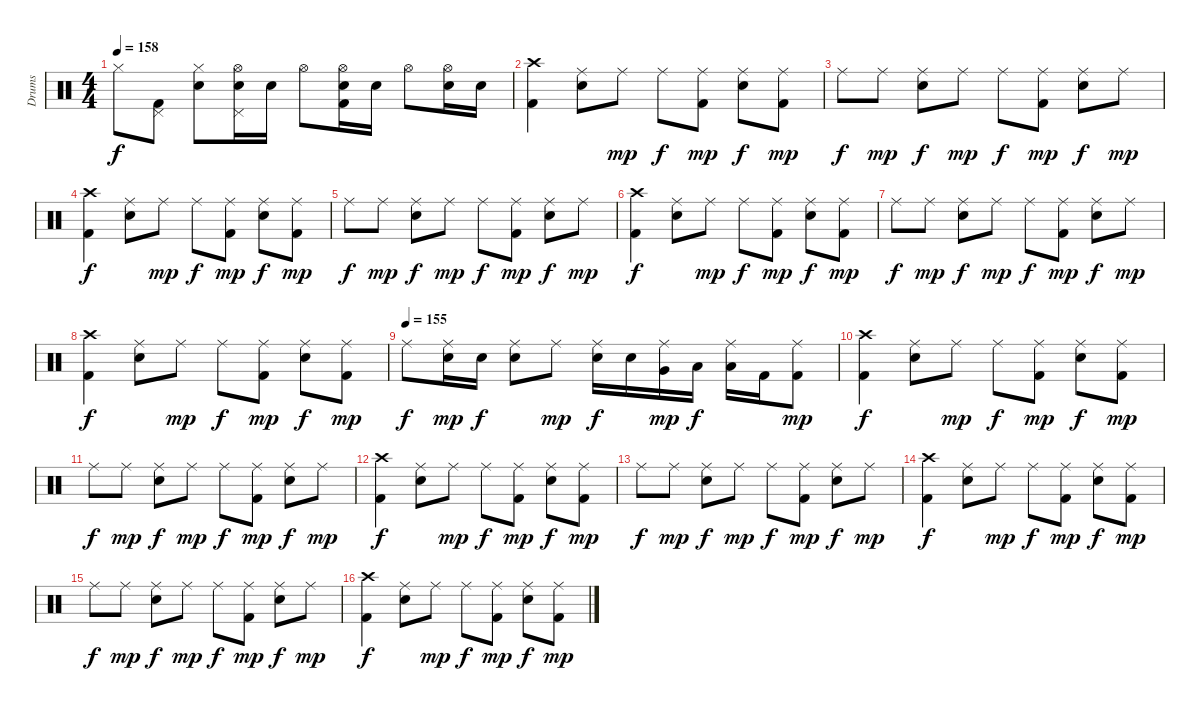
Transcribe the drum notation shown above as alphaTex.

\track ("Drums" "Drums") {instrument percussion}
\staff {score}
\articulation defaults
\ts (4 4)
\tempo 158
\clef neutral
\ks c "Hi-Hat (closed)".8{dy f}
("Kick (hit) 2" "Pedal Hi-Hat (hit)").8 ("Electric Snare (hit)" "Hi-Hat (closed)").8 ("Hi-Hat (open)" "Electric Snare (hit)" "Pedal Hi-Hat (hit)").16 "Electric Snare (hit)".16 "Hi-Hat (open)".8 ("Hi-Hat (open)" "Electric Snare (hit)" "Kick (hit) 2").16 "Electric Snare (hit)".16 "Hi-Hat (open)".8 ("Hi-Hat (open)" "Electric Snare (hit)").16 "Electric Snare (hit)".16 |
("Kick (hit) 2" "Crash high (hit)").4 ("Ride (middle)" "Electric Snare (hit)").8 "Ride (middle)".8{dy mp} "Ride (middle)".8{dy f} ("Kick (hit) 2" "Ride (middle)").8{dy mp} ("Electric Snare (hit)" "Ride (middle)").8{dy f} ("Kick (hit) 2" "Ride (middle)").8{dy mp} |
"Ride (middle)".8{dy f} "Ride (middle)".8{dy mp} ("Electric Snare (hit)" "Ride (middle)").8{dy f} "Ride (middle)".8{dy mp} "Ride (middle)".8{dy f} ("Kick (hit) 2" "Ride (middle)").8{dy mp} ("Electric Snare (hit)" "Ride (middle)").8{dy f} "Ride (middle)".8{dy mp} |
("Kick (hit) 2" "Crash high (hit)").4{dy f} ("Ride (middle)" "Electric Snare (hit)").8 "Ride (middle)".8{dy mp} "Ride (middle)".8{dy f} ("Kick (hit) 2" "Ride (middle)").8{dy mp} ("Electric Snare (hit)" "Ride (middle)").8{dy f} ("Kick (hit) 2" "Ride (middle)").8{dy mp} |
"Ride (middle)".8{dy f} "Ride (middle)".8{dy mp} ("Electric Snare (hit)" "Ride (middle)").8{dy f} "Ride (middle)".8{dy mp} "Ride (middle)".8{dy f} ("Kick (hit) 2" "Ride (middle)").8{dy mp} ("Electric Snare (hit)" "Ride (middle)").8{dy f} "Ride (middle)".8{dy mp} |
("Kick (hit) 2" "Crash high (hit)").4{dy f} ("Ride (middle)" "Electric Snare (hit)").8 "Ride (middle)".8{dy mp} "Ride (middle)".8{dy f} ("Kick (hit) 2" "Ride (middle)").8{dy mp} ("Electric Snare (hit)" "Ride (middle)").8{dy f} ("Kick (hit) 2" "Ride (middle)").8{dy mp} |
"Ride (middle)".8{dy f} "Ride (middle)".8{dy mp} ("Electric Snare (hit)" "Ride (middle)").8{dy f} "Ride (middle)".8{dy mp} "Ride (middle)".8{dy f} ("Kick (hit) 2" "Ride (middle)").8{dy mp} ("Electric Snare (hit)" "Ride (middle)").8{dy f} "Ride (middle)".8{dy mp} |
("Kick (hit) 2" "Crash high (hit)").4{dy f} ("Ride (middle)" "Electric Snare (hit)").8 "Ride (middle)".8{dy mp} "Ride (middle)".8{dy f} ("Kick (hit) 2" "Ride (middle)").8{dy mp} ("Electric Snare (hit)" "Ride (middle)").8{dy f} ("Kick (hit) 2" "Ride (middle)").8{dy mp} |
\tempo (155)
"Ride (middle)".8{dy f} ("Electric Snare (hit)" "Ride (middle)").16{dy mp} "Electric Snare (hit)".16{dy f} ("Electric Snare (hit)" "Ride (middle)").8 "Ride (middle)".8{dy mp} ("Electric Snare (hit)" "Ride (middle)").16{dy f} "Electric Snare (hit)".16 ("Very Low Tom (hit)" "Ride (middle)").16{dy mp} "Low Floor Tom (hit)".16{dy f} ("Low Floor Tom (hit)" "Ride (middle)").16 "Kick (hit) 2".16 ("Kick (hit) 2" "Ride (middle)").8{dy mp} |
("Kick (hit) 2" "Crash high (hit)").4{dy f} ("Ride (middle)" "Electric Snare (hit)").8 "Ride (middle)".8{dy mp} "Ride (middle)".8{dy f} ("Kick (hit) 2" "Ride (middle)").8{dy mp} ("Electric Snare (hit)" "Ride (middle)").8{dy f} ("Kick (hit) 2" "Ride (middle)").8{dy mp} |
"Ride (middle)".8{dy f} "Ride (middle)".8{dy mp} ("Electric Snare (hit)" "Ride (middle)").8{dy f} "Ride (middle)".8{dy mp} "Ride (middle)".8{dy f} ("Kick (hit) 2" "Ride (middle)").8{dy mp} ("Electric Snare (hit)" "Ride (middle)").8{dy f} "Ride (middle)".8{dy mp} |
("Kick (hit) 2" "Crash high (hit)").4{dy f} ("Ride (middle)" "Electric Snare (hit)").8 "Ride (middle)".8{dy mp} "Ride (middle)".8{dy f} ("Kick (hit) 2" "Ride (middle)").8{dy mp} ("Electric Snare (hit)" "Ride (middle)").8{dy f} ("Kick (hit) 2" "Ride (middle)").8{dy mp} |
"Ride (middle)".8{dy f} "Ride (middle)".8{dy mp} ("Electric Snare (hit)" "Ride (middle)").8{dy f} "Ride (middle)".8{dy mp} "Ride (middle)".8{dy f} ("Kick (hit) 2" "Ride (middle)").8{dy mp} ("Electric Snare (hit)" "Ride (middle)").8{dy f} "Ride (middle)".8{dy mp} |
("Kick (hit) 2" "Crash high (hit)").4{dy f} ("Ride (middle)" "Electric Snare (hit)").8 "Ride (middle)".8{dy mp} "Ride (middle)".8{dy f} ("Kick (hit) 2" "Ride (middle)").8{dy mp} ("Electric Snare (hit)" "Ride (middle)").8{dy f} ("Kick (hit) 2" "Ride (middle)").8{dy mp} |
"Ride (middle)".8{dy f} "Ride (middle)".8{dy mp} ("Electric Snare (hit)" "Ride (middle)").8{dy f} "Ride (middle)".8{dy mp} "Ride (middle)".8{dy f} ("Kick (hit) 2" "Ride (middle)").8{dy mp} ("Electric Snare (hit)" "Ride (middle)").8{dy f} "Ride (middle)".8{dy mp} |
("Kick (hit) 2" "Crash high (hit)").4{dy f} ("Ride (middle)" "Electric Snare (hit)").8 "Ride (middle)".8{dy mp} "Ride (middle)".8{dy f} ("Kick (hit) 2" "Ride (middle)").8{dy mp} ("Electric Snare (hit)" "Ride (middle)").8{dy f} ("Kick (hit) 2" "Ride (middle)").8{dy mp}
